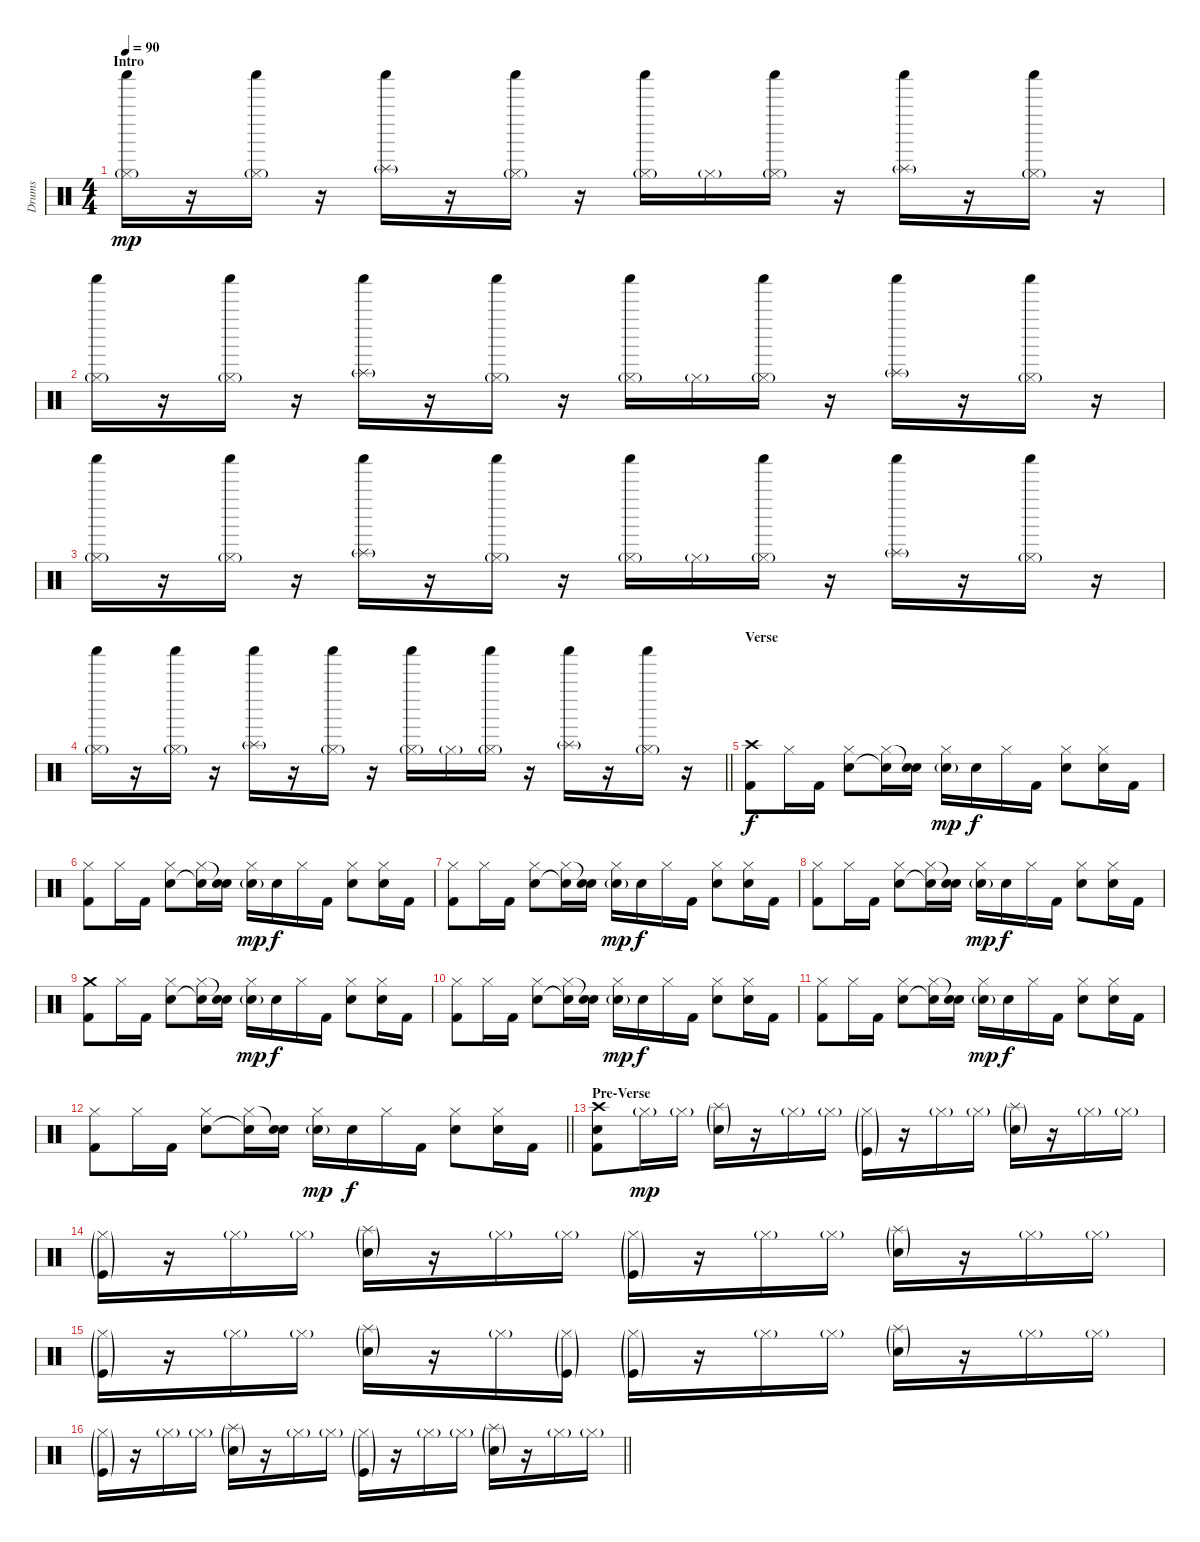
\track ("Drums" "Drums") {instrument percussion}
\staff {score}
\articulation defaults
\ts (4 4)
\section ("" "Intro")
\tempo 90
\clef neutral
\ks c
("Hi-Hat (closed)"{g} "Shaker (hit)").16{dy mp} r.16 ("Hi-Hat (closed)"{g} "Shaker (hit)").16 r.16 ("Splash (hit)"{g} "Shaker (hit)").16 r.16 ("Hi-Hat (closed)"{g} "Shaker (hit)").16 r.16 ("Hi-Hat (closed)"{g} "Shaker (hit)").16 "Hi-Hat (closed)"{g}.16 ("Hi-Hat (closed)"{g} "Shaker (hit)").16 r.16 ("Splash (hit)"{g} "Shaker (hit)").16 r.16 ("Hi-Hat (closed)"{g} "Shaker (hit)").16 r.16 |
("Hi-Hat (closed)"{g} "Shaker (hit)").16 r.16 ("Hi-Hat (closed)"{g} "Shaker (hit)").16 r.16 ("Splash (hit)"{g} "Shaker (hit)").16 r.16 ("Hi-Hat (closed)"{g} "Shaker (hit)").16 r.16 ("Hi-Hat (closed)"{g} "Shaker (hit)").16 "Hi-Hat (closed)"{g}.16 ("Hi-Hat (closed)"{g} "Shaker (hit)").16 r.16 ("Splash (hit)"{g} "Shaker (hit)").16 r.16 ("Hi-Hat (closed)"{g} "Shaker (hit)").16 r.16 |
("Hi-Hat (closed)"{g} "Shaker (hit)").16 r.16 ("Hi-Hat (closed)"{g} "Shaker (hit)").16 r.16 ("Splash (hit)"{g} "Shaker (hit)").16 r.16 ("Hi-Hat (closed)"{g} "Shaker (hit)").16 r.16 ("Hi-Hat (closed)"{g} "Shaker (hit)").16 "Hi-Hat (closed)"{g}.16 ("Hi-Hat (closed)"{g} "Shaker (hit)").16 r.16 ("Splash (hit)"{g} "Shaker (hit)").16 r.16 ("Hi-Hat (closed)"{g} "Shaker (hit)").16 r.16 |
\barLineRight lightlight
("Hi-Hat (closed)"{g} "Shaker (hit)").16 r.16 ("Hi-Hat (closed)"{g} "Shaker (hit)").16 r.16 ("Splash (hit)"{g} "Shaker (hit)").16 r.16 ("Hi-Hat (closed)"{g} "Shaker (hit)").16 r.16 ("Hi-Hat (closed)"{g} "Shaker (hit)").16 "Hi-Hat (closed)"{g}.16 ("Hi-Hat (closed)"{g} "Shaker (hit)").16 r.16 ("Splash (hit)"{g} "Shaker (hit)").16 r.16 ("Hi-Hat (closed)"{g} "Shaker (hit)").16 r.16 |
\section ("" "Verse")
("Kick (hit) 2" "Crash high (hit)").8{dy f} "Hi-Hat (closed)".16 "Kick (hit) 2".16 ("Snare (hit) 2" "Hi-Hat (closed)").8 ("Snare (hit)"{t} "Hi-Hat (closed)").16 ("Snare (hit) 2" "Snare (hit)"{t}).16 ("Snare (hit) 2"{g} "Hi-Hat (closed)").16{dy mp} "Snare (hit) 2".16{dy f} "Hi-Hat (closed)".16 "Kick (hit) 2".16 ("Snare (hit) 2" "Hi-Hat (closed)").8 ("Snare (hit) 2" "Hi-Hat (closed)").16 "Kick (hit) 2".16 |
("Kick (hit) 2" "Hi-Hat (closed)").8 "Hi-Hat (closed)".16 "Kick (hit) 2".16 ("Snare (hit) 2" "Hi-Hat (closed)").8 ("Snare (hit)"{t} "Hi-Hat (closed)").16 ("Snare (hit) 2" "Snare (hit)"{t}).16 ("Snare (hit) 2"{g} "Hi-Hat (closed)").16{dy mp} "Snare (hit) 2".16{dy f} "Hi-Hat (closed)".16 "Kick (hit) 2".16 ("Snare (hit) 2" "Hi-Hat (closed)").8 ("Snare (hit) 2" "Hi-Hat (closed)").16 "Kick (hit) 2".16 |
("Kick (hit) 2" "Hi-Hat (closed)").8 "Hi-Hat (closed)".16 "Kick (hit) 2".16 ("Snare (hit) 2" "Hi-Hat (closed)").8 ("Snare (hit)"{t} "Hi-Hat (closed)").16 ("Snare (hit) 2" "Snare (hit)"{t}).16 ("Snare (hit) 2"{g} "Hi-Hat (closed)").16{dy mp} "Snare (hit) 2".16{dy f} "Hi-Hat (closed)".16 "Kick (hit) 2".16 ("Snare (hit) 2" "Hi-Hat (closed)").8 ("Snare (hit) 2" "Hi-Hat (closed)").16 "Kick (hit) 2".16 |
("Kick (hit) 2" "Hi-Hat (closed)").8 "Hi-Hat (closed)".16 "Kick (hit) 2".16 ("Snare (hit) 2" "Hi-Hat (closed)").8 ("Snare (hit)"{t} "Hi-Hat (closed)").16 ("Snare (hit) 2" "Snare (hit)"{t}).16 ("Snare (hit) 2"{g} "Hi-Hat (closed)").16{dy mp} "Snare (hit) 2".16{dy f} "Hi-Hat (closed)".16 "Kick (hit) 2".16 ("Snare (hit) 2" "Hi-Hat (closed)").8 ("Snare (hit) 2" "Hi-Hat (closed)").16 "Kick (hit) 2".16 |
("Kick (hit) 2" "Crash medium (hit)").8 "Hi-Hat (closed)".16 "Kick (hit) 2".16 ("Snare (hit) 2" "Hi-Hat (closed)").8 ("Snare (hit)"{t} "Hi-Hat (closed)").16 ("Snare (hit) 2" "Snare (hit)"{t}).16 ("Snare (hit) 2"{g} "Hi-Hat (closed)").16{dy mp} "Snare (hit) 2".16{dy f} "Hi-Hat (closed)".16 "Kick (hit) 2".16 ("Snare (hit) 2" "Hi-Hat (closed)").8 ("Snare (hit) 2" "Hi-Hat (closed)").16 "Kick (hit) 2".16 |
("Kick (hit) 2" "Hi-Hat (closed)").8 "Hi-Hat (closed)".16 "Kick (hit) 2".16 ("Snare (hit) 2" "Hi-Hat (closed)").8 ("Snare (hit)"{t} "Hi-Hat (closed)").16 ("Snare (hit) 2" "Snare (hit)"{t}).16 ("Snare (hit) 2"{g} "Hi-Hat (closed)").16{dy mp} "Snare (hit) 2".16{dy f} "Hi-Hat (closed)".16 "Kick (hit) 2".16 ("Snare (hit) 2" "Hi-Hat (closed)").8 ("Snare (hit) 2" "Hi-Hat (closed)").16 "Kick (hit) 2".16 |
("Kick (hit) 2" "Hi-Hat (closed)").8 "Hi-Hat (closed)".16 "Kick (hit) 2".16 ("Snare (hit) 2" "Hi-Hat (closed)").8 ("Snare (hit)"{t} "Hi-Hat (closed)").16 ("Snare (hit) 2" "Snare (hit)"{t}).16 ("Snare (hit) 2"{g} "Hi-Hat (closed)").16{dy mp} "Snare (hit) 2".16{dy f} "Hi-Hat (closed)".16 "Kick (hit) 2".16 ("Snare (hit) 2" "Hi-Hat (closed)").8 ("Snare (hit) 2" "Hi-Hat (closed)").16 "Kick (hit) 2".16 |
\barLineRight lightlight
("Kick (hit) 2" "Hi-Hat (closed)").8 "Hi-Hat (closed)".16 "Kick (hit) 2".16 ("Snare (hit) 2" "Hi-Hat (closed)").8 ("Snare (hit)"{t} "Hi-Hat (closed)").16 ("Snare (hit) 2" "Snare (hit)"{t}).16 ("Snare (hit) 2"{g} "Hi-Hat (closed)").16{dy mp} "Snare (hit) 2".16{dy f} "Hi-Hat (closed)".16 "Kick (hit) 2".16 ("Snare (hit) 2" "Hi-Hat (closed)").8 ("Snare (hit) 2" "Hi-Hat (closed)").16 "Kick (hit) 2".16 |
\section ("" "Pre-Verse")
("Kick (hit) 2" "Electric Snare (hit)" "Crash high (hit)").8 "Hi-Hat (closed)"{g}.16{dy mp} "Hi-Hat (closed)"{g}.16 ("Splash (hit)"{g} "Snare (hit) 2"{g}).16 r.16 "Hi-Hat (closed)"{g}.16 "Hi-Hat (closed)"{g}.16 ("Hi-Hat (closed)"{g} "Kick (hit)"{g}).16 r.16 "Hi-Hat (closed)"{g}.16 "Hi-Hat (closed)"{g}.16 ("Splash (hit)"{g} "Snare (hit) 2"{g}).16 r.16 "Hi-Hat (closed)"{g}.16 "Hi-Hat (closed)"{g}.16 |
("Hi-Hat (closed)"{g} "Kick (hit)"{g}).16 r.16 "Hi-Hat (closed)"{g}.16 "Hi-Hat (closed)"{g}.16 ("Splash (hit)"{g} "Snare (hit) 2"{g}).16 r.16 "Hi-Hat (closed)"{g}.16 "Hi-Hat (closed)"{g}.16 ("Hi-Hat (closed)"{g} "Kick (hit)"{g}).16 r.16 "Hi-Hat (closed)"{g}.16 "Hi-Hat (closed)"{g}.16 ("Splash (hit)"{g} "Snare (hit) 2"{g}).16 r.16 "Hi-Hat (closed)"{g}.16 "Hi-Hat (closed)"{g}.16 |
("Hi-Hat (closed)"{g} "Kick (hit)"{g}).16 r.16 "Hi-Hat (closed)"{g}.16 "Hi-Hat (closed)"{g}.16 ("Splash (hit)"{g} "Snare (hit) 2"{g}).16 r.16 "Hi-Hat (closed)"{g}.16 ("Hi-Hat (closed)"{g} "Kick (hit)"{g}).16 ("Hi-Hat (closed)"{g} "Kick (hit)"{g}).16 r.16 "Hi-Hat (closed)"{g}.16 "Hi-Hat (closed)"{g}.16 ("Splash (hit)"{g} "Snare (hit) 2"{g}).16 r.16 "Hi-Hat (closed)"{g}.16 "Hi-Hat (closed)"{g}.16 |
\barLineRight lightlight
("Hi-Hat (closed)"{g} "Kick (hit)"{g}).16 r.16 "Hi-Hat (closed)"{g}.16 "Hi-Hat (closed)"{g}.16 ("Splash (hit)"{g} "Snare (hit) 2"{g}).16 r.16 "Hi-Hat (closed)"{g}.16 "Hi-Hat (closed)"{g}.16 ("Hi-Hat (closed)"{g} "Kick (hit)"{g}).16 r.16 "Hi-Hat (closed)"{g}.16 "Hi-Hat (closed)"{g}.16 ("Splash (hit)"{g} "Snare (hit) 2"{g}).16 r.16 "Hi-Hat (closed)"{g}.16 "Hi-Hat (closed)"{g}.16
